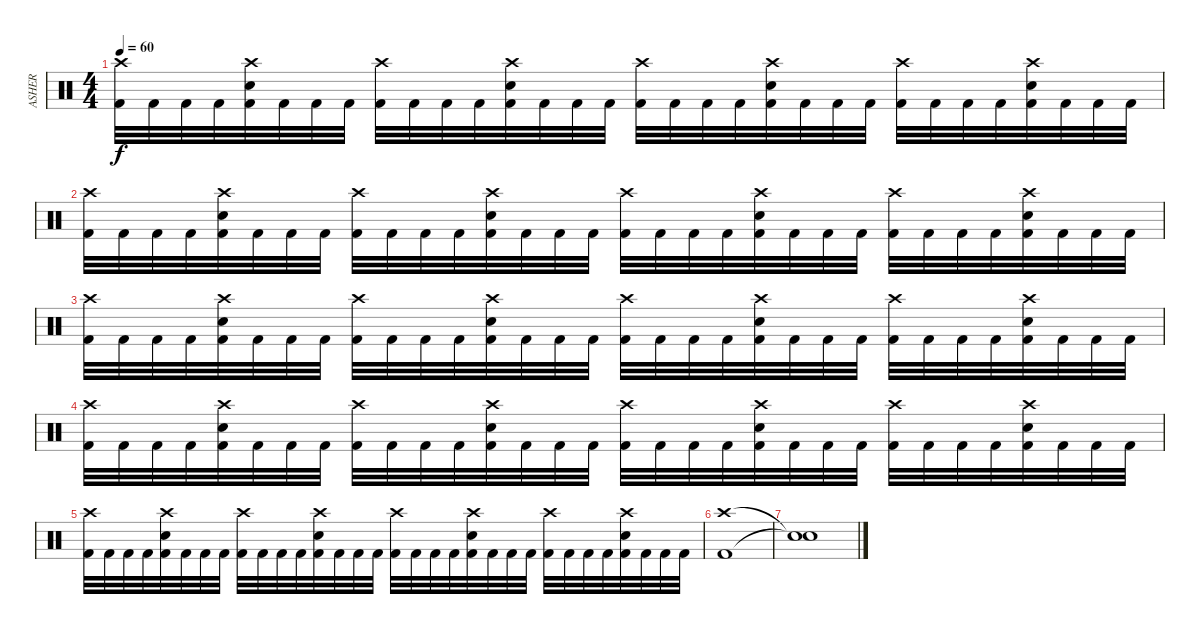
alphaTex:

\track ("ASHER" "ASHER") {instrument percussion}
\staff {score}
\articulation defaults
\ts (4 4)
\tempo 60
\clef neutral
\ks c
("Crash high (hit)" "Kick (hit) 2").32{dy f} "Kick (hit) 2".32 "Kick (hit) 2".32 "Kick (hit) 2".32 ("Crash high (hit)" "Electric Snare (hit)" "Kick (hit) 2").32 "Kick (hit) 2".32 "Kick (hit) 2".32 "Kick (hit) 2".32 ("Crash high (hit)" "Kick (hit) 2").32 "Kick (hit) 2".32 "Kick (hit) 2".32 "Kick (hit) 2".32 ("Crash high (hit)" "Electric Snare (hit)" "Kick (hit) 2").32 "Kick (hit) 2".32 "Kick (hit) 2".32 "Kick (hit) 2".32 ("Crash high (hit)" "Kick (hit) 2").32 "Kick (hit) 2".32 "Kick (hit) 2".32 "Kick (hit) 2".32 ("Crash high (hit)" "Electric Snare (hit)" "Kick (hit) 2").32 "Kick (hit) 2".32 "Kick (hit) 2".32 "Kick (hit) 2".32 ("Crash high (hit)" "Kick (hit) 2").32 "Kick (hit) 2".32 "Kick (hit) 2".32 "Kick (hit) 2".32 ("Crash high (hit)" "Electric Snare (hit)" "Kick (hit) 2").32 "Kick (hit) 2".32 "Kick (hit) 2".32 "Kick (hit) 2".32 |
("Crash high (hit)" "Kick (hit) 2").32 "Kick (hit) 2".32 "Kick (hit) 2".32 "Kick (hit) 2".32 ("Crash high (hit)" "Electric Snare (hit)" "Kick (hit) 2").32 "Kick (hit) 2".32 "Kick (hit) 2".32 "Kick (hit) 2".32 ("Crash high (hit)" "Kick (hit) 2").32 "Kick (hit) 2".32 "Kick (hit) 2".32 "Kick (hit) 2".32 ("Crash high (hit)" "Electric Snare (hit)" "Kick (hit) 2").32 "Kick (hit) 2".32 "Kick (hit) 2".32 "Kick (hit) 2".32 ("Crash high (hit)" "Kick (hit) 2").32 "Kick (hit) 2".32 "Kick (hit) 2".32 "Kick (hit) 2".32 ("Crash high (hit)" "Electric Snare (hit)" "Kick (hit) 2").32 "Kick (hit) 2".32 "Kick (hit) 2".32 "Kick (hit) 2".32 ("Crash high (hit)" "Kick (hit) 2").32 "Kick (hit) 2".32 "Kick (hit) 2".32 "Kick (hit) 2".32 ("Crash high (hit)" "Electric Snare (hit)" "Kick (hit) 2").32 "Kick (hit) 2".32 "Kick (hit) 2".32 "Kick (hit) 2".32 |
("Crash high (hit)" "Kick (hit) 2").32 "Kick (hit) 2".32 "Kick (hit) 2".32 "Kick (hit) 2".32 ("Crash high (hit)" "Electric Snare (hit)" "Kick (hit) 2").32 "Kick (hit) 2".32 "Kick (hit) 2".32 "Kick (hit) 2".32 ("Crash high (hit)" "Kick (hit) 2").32 "Kick (hit) 2".32 "Kick (hit) 2".32 "Kick (hit) 2".32 ("Crash high (hit)" "Electric Snare (hit)" "Kick (hit) 2").32 "Kick (hit) 2".32 "Kick (hit) 2".32 "Kick (hit) 2".32 ("Crash high (hit)" "Kick (hit) 2").32 "Kick (hit) 2".32 "Kick (hit) 2".32 "Kick (hit) 2".32 ("Crash high (hit)" "Electric Snare (hit)" "Kick (hit) 2").32 "Kick (hit) 2".32 "Kick (hit) 2".32 "Kick (hit) 2".32 ("Crash high (hit)" "Kick (hit) 2").32 "Kick (hit) 2".32 "Kick (hit) 2".32 "Kick (hit) 2".32 ("Crash high (hit)" "Electric Snare (hit)" "Kick (hit) 2").32 "Kick (hit) 2".32 "Kick (hit) 2".32 "Kick (hit) 2".32 |
("Crash high (hit)" "Kick (hit) 2").32 "Kick (hit) 2".32 "Kick (hit) 2".32 "Kick (hit) 2".32 ("Crash high (hit)" "Electric Snare (hit)" "Kick (hit) 2").32 "Kick (hit) 2".32 "Kick (hit) 2".32 "Kick (hit) 2".32 ("Crash high (hit)" "Kick (hit) 2").32 "Kick (hit) 2".32 "Kick (hit) 2".32 "Kick (hit) 2".32 ("Crash high (hit)" "Electric Snare (hit)" "Kick (hit) 2").32 "Kick (hit) 2".32 "Kick (hit) 2".32 "Kick (hit) 2".32 ("Crash high (hit)" "Kick (hit) 2").32 "Kick (hit) 2".32 "Kick (hit) 2".32 "Kick (hit) 2".32 ("Crash high (hit)" "Electric Snare (hit)" "Kick (hit) 2").32 "Kick (hit) 2".32 "Kick (hit) 2".32 "Kick (hit) 2".32 ("Crash high (hit)" "Kick (hit) 2").32 "Kick (hit) 2".32 "Kick (hit) 2".32 "Kick (hit) 2".32 ("Crash high (hit)" "Electric Snare (hit)" "Kick (hit) 2").32 "Kick (hit) 2".32 "Kick (hit) 2".32 "Kick (hit) 2".32 |
("Crash high (hit)" "Kick (hit) 2").32 "Kick (hit) 2".32 "Kick (hit) 2".32 "Kick (hit) 2".32 ("Crash high (hit)" "Electric Snare (hit)" "Kick (hit) 2").32 "Kick (hit) 2".32 "Kick (hit) 2".32 "Kick (hit) 2".32 ("Crash high (hit)" "Kick (hit) 2").32 "Kick (hit) 2".32 "Kick (hit) 2".32 "Kick (hit) 2".32 ("Crash high (hit)" "Electric Snare (hit)" "Kick (hit) 2").32 "Kick (hit) 2".32 "Kick (hit) 2".32 "Kick (hit) 2".32 ("Crash high (hit)" "Kick (hit) 2").32 "Kick (hit) 2".32 "Kick (hit) 2".32 "Kick (hit) 2".32 ("Crash high (hit)" "Electric Snare (hit)" "Kick (hit) 2").32 "Kick (hit) 2".32 "Kick (hit) 2".32 "Kick (hit) 2".32 ("Crash high (hit)" "Kick (hit) 2").32 "Kick (hit) 2".32 "Kick (hit) 2".32 "Kick (hit) 2".32 ("Crash high (hit)" "Electric Snare (hit)" "Kick (hit) 2").32 "Kick (hit) 2".32 "Kick (hit) 2".32 "Kick (hit) 2".32 |
("Crash high (hit)" "Kick (hit) 2").1 |
("Snare (hit)"{t} "Snare (hit)"{t}).1
